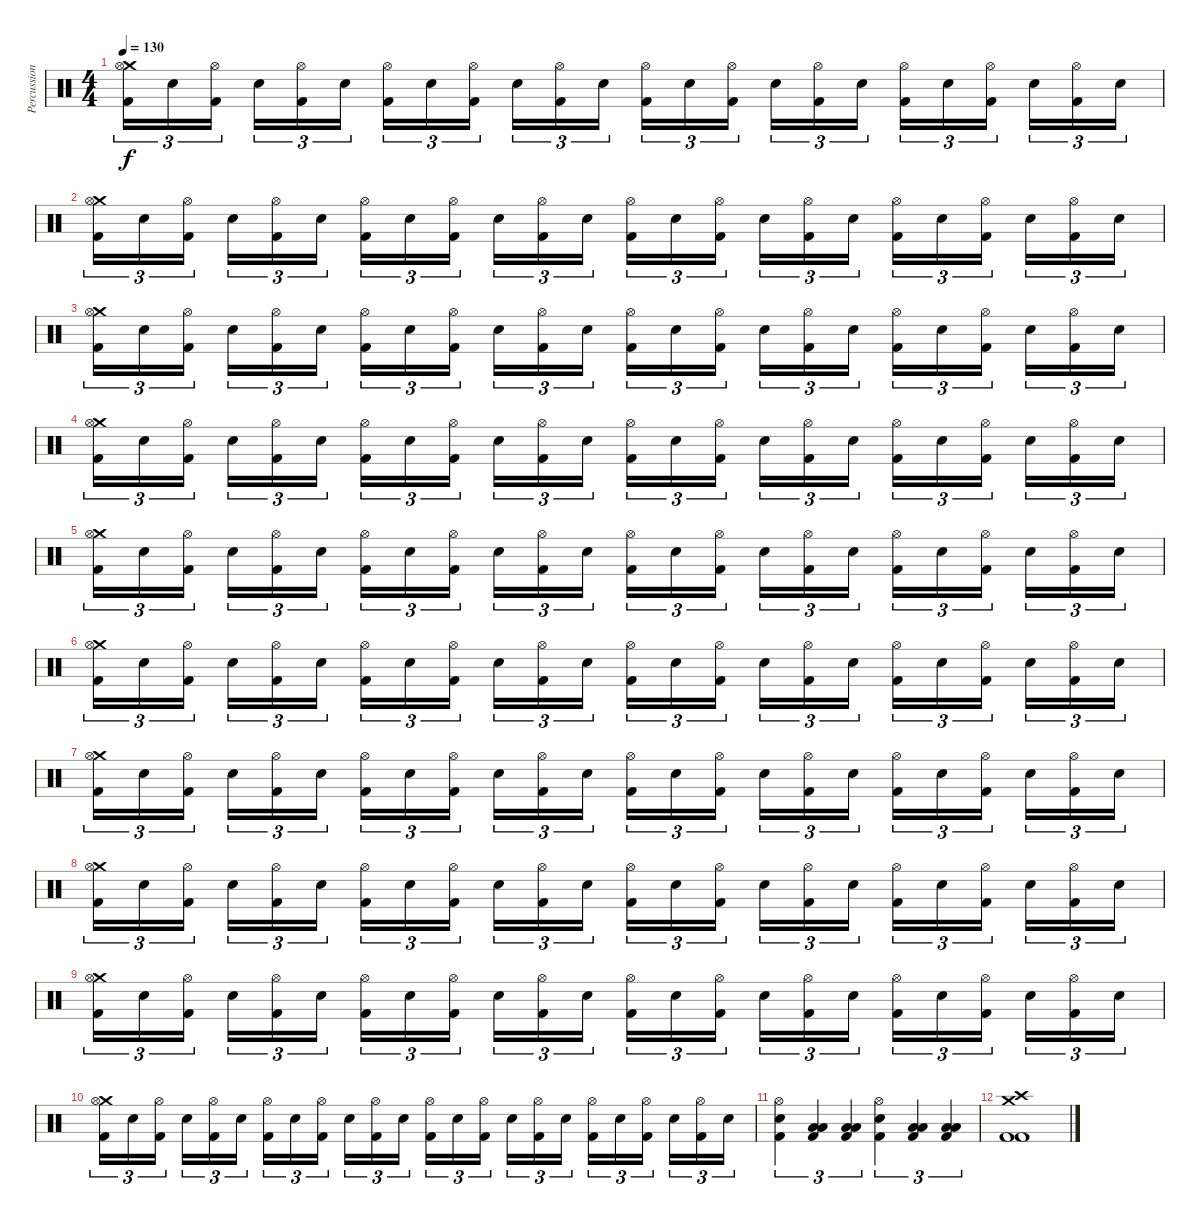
\track ("Percussion" "Percussion") {instrument percussion}
\staff {score}
\articulation defaults
\ts (4 4)
\tempo 130
\clef neutral
\ks c
("Crash medium (hit)" "Hi-Hat (open)" "Kick (hit) 2").16{tu (3 2) dy f} "Snare (hit) 2".16{tu (3 2)} ("Hi-Hat (open)" "Kick (hit) 2").16{tu (3 2)} "Snare (hit) 2".16{tu (3 2)} ("Hi-Hat (open)" "Kick (hit) 2").16{tu (3 2)} "Snare (hit) 2".16{tu (3 2)} ("Hi-Hat (open)" "Kick (hit) 2").16{tu (3 2)} "Snare (hit) 2".16{tu (3 2)} ("Hi-Hat (open)" "Kick (hit) 2").16{tu (3 2)} "Snare (hit) 2".16{tu (3 2)} ("Hi-Hat (open)" "Kick (hit) 2").16{tu (3 2)} "Snare (hit) 2".16{tu (3 2)} ("Hi-Hat (open)" "Kick (hit) 2").16{tu (3 2)} "Snare (hit) 2".16{tu (3 2)} ("Hi-Hat (open)" "Kick (hit) 2").16{tu (3 2)} "Snare (hit) 2".16{tu (3 2)} ("Hi-Hat (open)" "Kick (hit) 2").16{tu (3 2)} "Snare (hit) 2".16{tu (3 2)} ("Hi-Hat (open)" "Kick (hit) 2").16{tu (3 2)} "Snare (hit) 2".16{tu (3 2)} ("Hi-Hat (open)" "Kick (hit) 2").16{tu (3 2)} "Snare (hit) 2".16{tu (3 2)} ("Hi-Hat (open)" "Kick (hit) 2").16{tu (3 2)} "Snare (hit) 2".16{tu (3 2)} |
("Crash medium (hit)" "Hi-Hat (open)" "Kick (hit) 2").16{tu (3 2)} "Snare (hit) 2".16{tu (3 2)} ("Hi-Hat (open)" "Kick (hit) 2").16{tu (3 2)} "Snare (hit) 2".16{tu (3 2)} ("Hi-Hat (open)" "Kick (hit) 2").16{tu (3 2)} "Snare (hit) 2".16{tu (3 2)} ("Hi-Hat (open)" "Kick (hit) 2").16{tu (3 2)} "Snare (hit) 2".16{tu (3 2)} ("Hi-Hat (open)" "Kick (hit) 2").16{tu (3 2)} "Snare (hit) 2".16{tu (3 2)} ("Hi-Hat (open)" "Kick (hit) 2").16{tu (3 2)} "Snare (hit) 2".16{tu (3 2)} ("Hi-Hat (open)" "Kick (hit) 2").16{tu (3 2)} "Snare (hit) 2".16{tu (3 2)} ("Hi-Hat (open)" "Kick (hit) 2").16{tu (3 2)} "Snare (hit) 2".16{tu (3 2)} ("Hi-Hat (open)" "Kick (hit) 2").16{tu (3 2)} "Snare (hit) 2".16{tu (3 2)} ("Hi-Hat (open)" "Kick (hit) 2").16{tu (3 2)} "Snare (hit) 2".16{tu (3 2)} ("Hi-Hat (open)" "Kick (hit) 2").16{tu (3 2)} "Snare (hit) 2".16{tu (3 2)} ("Hi-Hat (open)" "Kick (hit) 2").16{tu (3 2)} "Snare (hit) 2".16{tu (3 2)} |
("Crash medium (hit)" "Hi-Hat (open)" "Kick (hit) 2").16{tu (3 2)} "Snare (hit) 2".16{tu (3 2)} ("Hi-Hat (open)" "Kick (hit) 2").16{tu (3 2)} "Snare (hit) 2".16{tu (3 2)} ("Hi-Hat (open)" "Kick (hit) 2").16{tu (3 2)} "Snare (hit) 2".16{tu (3 2)} ("Hi-Hat (open)" "Kick (hit) 2").16{tu (3 2)} "Snare (hit) 2".16{tu (3 2)} ("Hi-Hat (open)" "Kick (hit) 2").16{tu (3 2)} "Snare (hit) 2".16{tu (3 2)} ("Hi-Hat (open)" "Kick (hit) 2").16{tu (3 2)} "Snare (hit) 2".16{tu (3 2)} ("Hi-Hat (open)" "Kick (hit) 2").16{tu (3 2)} "Snare (hit) 2".16{tu (3 2)} ("Hi-Hat (open)" "Kick (hit) 2").16{tu (3 2)} "Snare (hit) 2".16{tu (3 2)} ("Hi-Hat (open)" "Kick (hit) 2").16{tu (3 2)} "Snare (hit) 2".16{tu (3 2)} ("Hi-Hat (open)" "Kick (hit) 2").16{tu (3 2)} "Snare (hit) 2".16{tu (3 2)} ("Hi-Hat (open)" "Kick (hit) 2").16{tu (3 2)} "Snare (hit) 2".16{tu (3 2)} ("Hi-Hat (open)" "Kick (hit) 2").16{tu (3 2)} "Snare (hit) 2".16{tu (3 2)} |
("Crash medium (hit)" "Hi-Hat (open)" "Kick (hit) 2").16{tu (3 2)} "Snare (hit) 2".16{tu (3 2)} ("Hi-Hat (open)" "Kick (hit) 2").16{tu (3 2)} "Snare (hit) 2".16{tu (3 2)} ("Hi-Hat (open)" "Kick (hit) 2").16{tu (3 2)} "Snare (hit) 2".16{tu (3 2)} ("Hi-Hat (open)" "Kick (hit) 2").16{tu (3 2)} "Snare (hit) 2".16{tu (3 2)} ("Hi-Hat (open)" "Kick (hit) 2").16{tu (3 2)} "Snare (hit) 2".16{tu (3 2)} ("Hi-Hat (open)" "Kick (hit) 2").16{tu (3 2)} "Snare (hit) 2".16{tu (3 2)} ("Hi-Hat (open)" "Kick (hit) 2").16{tu (3 2)} "Snare (hit) 2".16{tu (3 2)} ("Hi-Hat (open)" "Kick (hit) 2").16{tu (3 2)} "Snare (hit) 2".16{tu (3 2)} ("Hi-Hat (open)" "Kick (hit) 2").16{tu (3 2)} "Snare (hit) 2".16{tu (3 2)} ("Hi-Hat (open)" "Kick (hit) 2").16{tu (3 2)} "Snare (hit) 2".16{tu (3 2)} ("Hi-Hat (open)" "Kick (hit) 2").16{tu (3 2)} "Snare (hit) 2".16{tu (3 2)} ("Hi-Hat (open)" "Kick (hit) 2").16{tu (3 2)} "Snare (hit) 2".16{tu (3 2)} |
("Crash medium (hit)" "Hi-Hat (open)" "Kick (hit) 2").16{tu (3 2)} "Snare (hit) 2".16{tu (3 2)} ("Hi-Hat (open)" "Kick (hit) 2").16{tu (3 2)} "Snare (hit) 2".16{tu (3 2)} ("Hi-Hat (open)" "Kick (hit) 2").16{tu (3 2)} "Snare (hit) 2".16{tu (3 2)} ("Hi-Hat (open)" "Kick (hit) 2").16{tu (3 2)} "Snare (hit) 2".16{tu (3 2)} ("Hi-Hat (open)" "Kick (hit) 2").16{tu (3 2)} "Snare (hit) 2".16{tu (3 2)} ("Hi-Hat (open)" "Kick (hit) 2").16{tu (3 2)} "Snare (hit) 2".16{tu (3 2)} ("Hi-Hat (open)" "Kick (hit) 2").16{tu (3 2)} "Snare (hit) 2".16{tu (3 2)} ("Hi-Hat (open)" "Kick (hit) 2").16{tu (3 2)} "Snare (hit) 2".16{tu (3 2)} ("Hi-Hat (open)" "Kick (hit) 2").16{tu (3 2)} "Snare (hit) 2".16{tu (3 2)} ("Hi-Hat (open)" "Kick (hit) 2").16{tu (3 2)} "Snare (hit) 2".16{tu (3 2)} ("Hi-Hat (open)" "Kick (hit) 2").16{tu (3 2)} "Snare (hit) 2".16{tu (3 2)} ("Hi-Hat (open)" "Kick (hit) 2").16{tu (3 2)} "Snare (hit) 2".16{tu (3 2)} |
("Crash medium (hit)" "Hi-Hat (open)" "Kick (hit) 2").16{tu (3 2)} "Snare (hit) 2".16{tu (3 2)} ("Hi-Hat (open)" "Kick (hit) 2").16{tu (3 2)} "Snare (hit) 2".16{tu (3 2)} ("Hi-Hat (open)" "Kick (hit) 2").16{tu (3 2)} "Snare (hit) 2".16{tu (3 2)} ("Hi-Hat (open)" "Kick (hit) 2").16{tu (3 2)} "Snare (hit) 2".16{tu (3 2)} ("Hi-Hat (open)" "Kick (hit) 2").16{tu (3 2)} "Snare (hit) 2".16{tu (3 2)} ("Hi-Hat (open)" "Kick (hit) 2").16{tu (3 2)} "Snare (hit) 2".16{tu (3 2)} ("Hi-Hat (open)" "Kick (hit) 2").16{tu (3 2)} "Snare (hit) 2".16{tu (3 2)} ("Hi-Hat (open)" "Kick (hit) 2").16{tu (3 2)} "Snare (hit) 2".16{tu (3 2)} ("Hi-Hat (open)" "Kick (hit) 2").16{tu (3 2)} "Snare (hit) 2".16{tu (3 2)} ("Hi-Hat (open)" "Kick (hit) 2").16{tu (3 2)} "Snare (hit) 2".16{tu (3 2)} ("Hi-Hat (open)" "Kick (hit) 2").16{tu (3 2)} "Snare (hit) 2".16{tu (3 2)} ("Hi-Hat (open)" "Kick (hit) 2").16{tu (3 2)} "Snare (hit) 2".16{tu (3 2)} |
("Crash medium (hit)" "Hi-Hat (open)" "Kick (hit) 2").16{tu (3 2)} "Snare (hit) 2".16{tu (3 2)} ("Hi-Hat (open)" "Kick (hit) 2").16{tu (3 2)} "Snare (hit) 2".16{tu (3 2)} ("Hi-Hat (open)" "Kick (hit) 2").16{tu (3 2)} "Snare (hit) 2".16{tu (3 2)} ("Hi-Hat (open)" "Kick (hit) 2").16{tu (3 2)} "Snare (hit) 2".16{tu (3 2)} ("Hi-Hat (open)" "Kick (hit) 2").16{tu (3 2)} "Snare (hit) 2".16{tu (3 2)} ("Hi-Hat (open)" "Kick (hit) 2").16{tu (3 2)} "Snare (hit) 2".16{tu (3 2)} ("Hi-Hat (open)" "Kick (hit) 2").16{tu (3 2)} "Snare (hit) 2".16{tu (3 2)} ("Hi-Hat (open)" "Kick (hit) 2").16{tu (3 2)} "Snare (hit) 2".16{tu (3 2)} ("Hi-Hat (open)" "Kick (hit) 2").16{tu (3 2)} "Snare (hit) 2".16{tu (3 2)} ("Hi-Hat (open)" "Kick (hit) 2").16{tu (3 2)} "Snare (hit) 2".16{tu (3 2)} ("Hi-Hat (open)" "Kick (hit) 2").16{tu (3 2)} "Snare (hit) 2".16{tu (3 2)} ("Hi-Hat (open)" "Kick (hit) 2").16{tu (3 2)} "Snare (hit) 2".16{tu (3 2)} |
("Crash medium (hit)" "Hi-Hat (open)" "Kick (hit) 2").16{tu (3 2)} "Snare (hit) 2".16{tu (3 2)} ("Hi-Hat (open)" "Kick (hit) 2").16{tu (3 2)} "Snare (hit) 2".16{tu (3 2)} ("Hi-Hat (open)" "Kick (hit) 2").16{tu (3 2)} "Snare (hit) 2".16{tu (3 2)} ("Hi-Hat (open)" "Kick (hit) 2").16{tu (3 2)} "Snare (hit) 2".16{tu (3 2)} ("Hi-Hat (open)" "Kick (hit) 2").16{tu (3 2)} "Snare (hit) 2".16{tu (3 2)} ("Hi-Hat (open)" "Kick (hit) 2").16{tu (3 2)} "Snare (hit) 2".16{tu (3 2)} ("Hi-Hat (open)" "Kick (hit) 2").16{tu (3 2)} "Snare (hit) 2".16{tu (3 2)} ("Hi-Hat (open)" "Kick (hit) 2").16{tu (3 2)} "Snare (hit) 2".16{tu (3 2)} ("Hi-Hat (open)" "Kick (hit) 2").16{tu (3 2)} "Snare (hit) 2".16{tu (3 2)} ("Hi-Hat (open)" "Kick (hit) 2").16{tu (3 2)} "Snare (hit) 2".16{tu (3 2)} ("Hi-Hat (open)" "Kick (hit) 2").16{tu (3 2)} "Snare (hit) 2".16{tu (3 2)} ("Hi-Hat (open)" "Kick (hit) 2").16{tu (3 2)} "Snare (hit) 2".16{tu (3 2)} |
("Crash medium (hit)" "Hi-Hat (open)" "Kick (hit) 2").16{tu (3 2)} "Snare (hit) 2".16{tu (3 2)} ("Hi-Hat (open)" "Kick (hit) 2").16{tu (3 2)} "Snare (hit) 2".16{tu (3 2)} ("Hi-Hat (open)" "Kick (hit) 2").16{tu (3 2)} "Snare (hit) 2".16{tu (3 2)} ("Hi-Hat (open)" "Kick (hit) 2").16{tu (3 2)} "Snare (hit) 2".16{tu (3 2)} ("Hi-Hat (open)" "Kick (hit) 2").16{tu (3 2)} "Snare (hit) 2".16{tu (3 2)} ("Hi-Hat (open)" "Kick (hit) 2").16{tu (3 2)} "Snare (hit) 2".16{tu (3 2)} ("Hi-Hat (open)" "Kick (hit) 2").16{tu (3 2)} "Snare (hit) 2".16{tu (3 2)} ("Hi-Hat (open)" "Kick (hit) 2").16{tu (3 2)} "Snare (hit) 2".16{tu (3 2)} ("Hi-Hat (open)" "Kick (hit) 2").16{tu (3 2)} "Snare (hit) 2".16{tu (3 2)} ("Hi-Hat (open)" "Kick (hit) 2").16{tu (3 2)} "Snare (hit) 2".16{tu (3 2)} ("Hi-Hat (open)" "Kick (hit) 2").16{tu (3 2)} "Snare (hit) 2".16{tu (3 2)} ("Hi-Hat (open)" "Kick (hit) 2").16{tu (3 2)} "Snare (hit) 2".16{tu (3 2)} |
("Crash medium (hit)" "Hi-Hat (open)" "Kick (hit) 2").16{tu (3 2)} "Snare (hit) 2".16{tu (3 2)} ("Hi-Hat (open)" "Kick (hit) 2").16{tu (3 2)} "Snare (hit) 2".16{tu (3 2)} ("Hi-Hat (open)" "Kick (hit) 2").16{tu (3 2)} "Snare (hit) 2".16{tu (3 2)} ("Hi-Hat (open)" "Kick (hit) 2").16{tu (3 2)} "Snare (hit) 2".16{tu (3 2)} ("Hi-Hat (open)" "Kick (hit) 2").16{tu (3 2)} "Snare (hit) 2".16{tu (3 2)} ("Hi-Hat (open)" "Kick (hit) 2").16{tu (3 2)} "Snare (hit) 2".16{tu (3 2)} ("Hi-Hat (open)" "Kick (hit) 2").16{tu (3 2)} "Snare (hit) 2".16{tu (3 2)} ("Hi-Hat (open)" "Kick (hit) 2").16{tu (3 2)} "Snare (hit) 2".16{tu (3 2)} ("Hi-Hat (open)" "Kick (hit) 2").16{tu (3 2)} "Snare (hit) 2".16{tu (3 2)} ("Hi-Hat (open)" "Kick (hit) 2").16{tu (3 2)} "Snare (hit) 2".16{tu (3 2)} ("Hi-Hat (open)" "Kick (hit) 2").16{tu (3 2)} "Snare (hit) 2".16{tu (3 2)} ("Hi-Hat (open)" "Kick (hit) 2").16{tu (3 2)} "Snare (hit) 2".16{tu (3 2)} |
("Hi-Hat (open)" "Snare (hit) 2" "Kick (hit) 2").4{tu (3 2)} ("Low Floor Tom (hit)" "Low Floor Tom (hit)" "Kick (hit) 2").4{tu (3 2)} ("Low Floor Tom (hit)" "Low Floor Tom (hit)" "Kick (hit) 2").4{tu (3 2)} ("Hi-Hat (open)" "Snare (hit) 2" "Kick (hit) 2").4{tu (3 2)} ("Low Floor Tom (hit)" "Low Floor Tom (hit)" "Kick (hit) 2").4{tu (3 2)} ("Low Floor Tom (hit)" "Low Floor Tom (hit)" "Kick (hit) 2").4{tu (3 2)} |
("Crash medium (hit)" "Crash high (hit)" "Kick (hit) 2" "Kick (hit) 2").1
